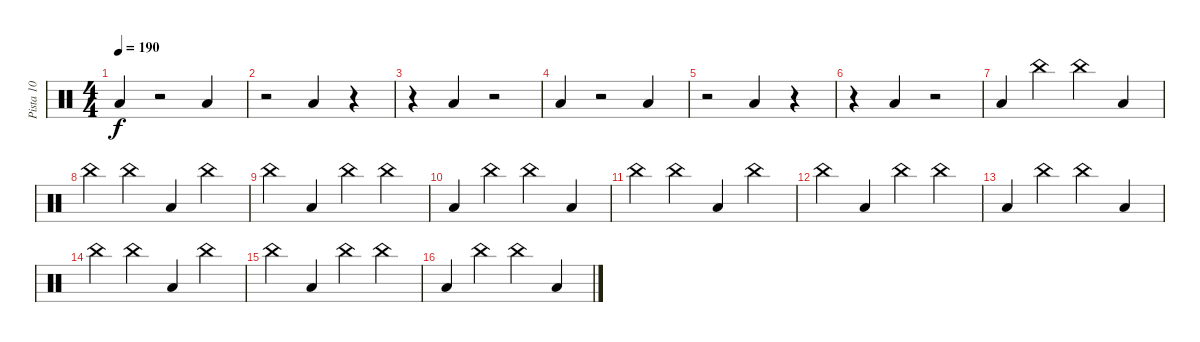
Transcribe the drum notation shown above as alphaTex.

\track ("Pista 10" "Pista 10") {instrument percussion}
\staff {score}
\articulation defaults
\ts (4 4)
\tempo 190
\clef neutral
\ks c "Low Floor Tom (hit)".4{dy f}
r.2 "Low Floor Tom (hit)".4 |
r.2 "Low Floor Tom (hit)".4 r.4 |
r.4 "Low Floor Tom (hit)".4 r.2 |
"Low Floor Tom (hit)".4 r.2 "Low Floor Tom (hit)".4 |
r.2 "Low Floor Tom (hit)".4 r.4 |
r.4 "Low Floor Tom (hit)".4 r.2 |
"Low Floor Tom (hit)".4 "China (hit)".4 "China (hit)".4 "Low Floor Tom (hit)".4 |
"China (hit)".4 "China (hit)".4 "Low Floor Tom (hit)".4 "China (hit)".4 |
"China (hit)".4 "Low Floor Tom (hit)".4 "China (hit)".4 "China (hit)".4 |
"Low Floor Tom (hit)".4 "China (hit)".4 "China (hit)".4 "Low Floor Tom (hit)".4 |
"China (hit)".4 "China (hit)".4 "Low Floor Tom (hit)".4 "China (hit)".4 |
"China (hit)".4 "Low Floor Tom (hit)".4 "China (hit)".4 "China (hit)".4 |
"Low Floor Tom (hit)".4 "China (hit)".4 "China (hit)".4 "Low Floor Tom (hit)".4 |
"China (hit)".4 "China (hit)".4 "Low Floor Tom (hit)".4 "China (hit)".4 |
"China (hit)".4 "Low Floor Tom (hit)".4 "China (hit)".4 "China (hit)".4 |
"Low Floor Tom (hit)".4 "China (hit)".4 "China (hit)".4 "Low Floor Tom (hit)".4
